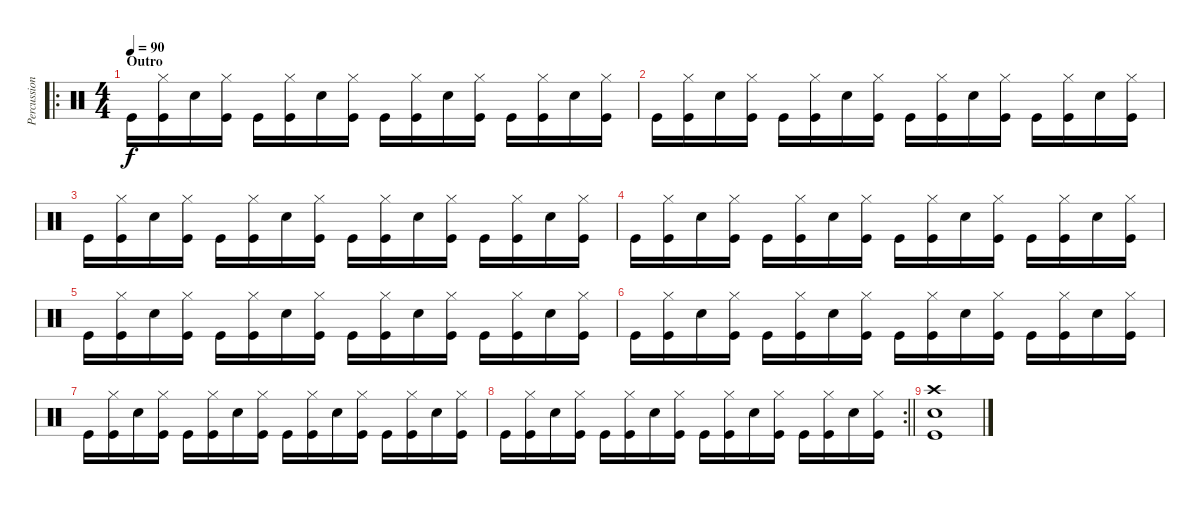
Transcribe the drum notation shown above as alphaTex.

\track ("Percussion" "Percussion") {instrument percussion}
\staff {score}
\articulation defaults
\ro
\ts (4 4)
\section ("" "Outro")
\tempo 90
\clef neutral
\ks c "Kick (hit)".16{dy f}
("Hi-Hat (closed)" "Kick (hit)").16 "Snare (hit) 2".16 ("Hi-Hat (closed)" "Kick (hit)").16 "Kick (hit)".16 ("Hi-Hat (closed)" "Kick (hit)").16 "Snare (hit) 2".16 ("Hi-Hat (closed)" "Kick (hit)").16 "Kick (hit)".16 ("Hi-Hat (closed)" "Kick (hit)").16 "Snare (hit) 2".16 ("Hi-Hat (closed)" "Kick (hit)").16 "Kick (hit)".16 ("Hi-Hat (closed)" "Kick (hit)").16 "Snare (hit) 2".16 ("Hi-Hat (closed)" "Kick (hit)").16 |
"Kick (hit)".16 ("Hi-Hat (closed)" "Kick (hit)").16 "Snare (hit) 2".16 ("Hi-Hat (closed)" "Kick (hit)").16 "Kick (hit)".16 ("Hi-Hat (closed)" "Kick (hit)").16 "Snare (hit) 2".16 ("Hi-Hat (closed)" "Kick (hit)").16 "Kick (hit)".16 ("Hi-Hat (closed)" "Kick (hit)").16 "Snare (hit) 2".16 ("Hi-Hat (closed)" "Kick (hit)").16 "Kick (hit)".16 ("Hi-Hat (closed)" "Kick (hit)").16 "Snare (hit) 2".16 ("Hi-Hat (closed)" "Kick (hit)").16 |
"Kick (hit)".16 ("Hi-Hat (closed)" "Kick (hit)").16 "Snare (hit) 2".16 ("Hi-Hat (closed)" "Kick (hit)").16 "Kick (hit)".16 ("Hi-Hat (closed)" "Kick (hit)").16 "Snare (hit) 2".16 ("Hi-Hat (closed)" "Kick (hit)").16 "Kick (hit)".16 ("Hi-Hat (closed)" "Kick (hit)").16 "Snare (hit) 2".16 ("Hi-Hat (closed)" "Kick (hit)").16 "Kick (hit)".16 ("Hi-Hat (closed)" "Kick (hit)").16 "Snare (hit) 2".16 ("Hi-Hat (closed)" "Kick (hit)").16 |
"Kick (hit)".16 ("Hi-Hat (closed)" "Kick (hit)").16 "Snare (hit) 2".16 ("Hi-Hat (closed)" "Kick (hit)").16 "Kick (hit)".16 ("Hi-Hat (closed)" "Kick (hit)").16 "Snare (hit) 2".16 ("Hi-Hat (closed)" "Kick (hit)").16 "Kick (hit)".16 ("Hi-Hat (closed)" "Kick (hit)").16 "Snare (hit) 2".16 ("Hi-Hat (closed)" "Kick (hit)").16 "Kick (hit)".16 ("Hi-Hat (closed)" "Kick (hit)").16 "Snare (hit) 2".16 ("Hi-Hat (closed)" "Kick (hit)").16 |
"Kick (hit)".16 ("Hi-Hat (closed)" "Kick (hit)").16 "Snare (hit) 2".16 ("Hi-Hat (closed)" "Kick (hit)").16 "Kick (hit)".16 ("Hi-Hat (closed)" "Kick (hit)").16 "Snare (hit) 2".16 ("Hi-Hat (closed)" "Kick (hit)").16 "Kick (hit)".16 ("Hi-Hat (closed)" "Kick (hit)").16 "Snare (hit) 2".16 ("Hi-Hat (closed)" "Kick (hit)").16 "Kick (hit)".16 ("Hi-Hat (closed)" "Kick (hit)").16 "Snare (hit) 2".16 ("Hi-Hat (closed)" "Kick (hit)").16 |
"Kick (hit)".16 ("Hi-Hat (closed)" "Kick (hit)").16 "Snare (hit) 2".16 ("Hi-Hat (closed)" "Kick (hit)").16 "Kick (hit)".16 ("Hi-Hat (closed)" "Kick (hit)").16 "Snare (hit) 2".16 ("Hi-Hat (closed)" "Kick (hit)").16 "Kick (hit)".16 ("Hi-Hat (closed)" "Kick (hit)").16 "Snare (hit) 2".16 ("Hi-Hat (closed)" "Kick (hit)").16 "Kick (hit)".16 ("Hi-Hat (closed)" "Kick (hit)").16 "Snare (hit) 2".16 ("Hi-Hat (closed)" "Kick (hit)").16 |
"Kick (hit)".16 ("Hi-Hat (closed)" "Kick (hit)").16 "Snare (hit) 2".16 ("Hi-Hat (closed)" "Kick (hit)").16 "Kick (hit)".16 ("Hi-Hat (closed)" "Kick (hit)").16 "Snare (hit) 2".16 ("Hi-Hat (closed)" "Kick (hit)").16 "Kick (hit)".16 ("Hi-Hat (closed)" "Kick (hit)").16 "Snare (hit) 2".16 ("Hi-Hat (closed)" "Kick (hit)").16 "Kick (hit)".16 ("Hi-Hat (closed)" "Kick (hit)").16 "Snare (hit) 2".16 ("Hi-Hat (closed)" "Kick (hit)").16 |
\rc 2
\barLineRight lightlight "Kick (hit)".16
("Hi-Hat (closed)" "Kick (hit)").16 "Snare (hit) 2".16 ("Hi-Hat (closed)" "Kick (hit)").16 "Kick (hit)".16 ("Hi-Hat (closed)" "Kick (hit)").16 "Snare (hit) 2".16 ("Hi-Hat (closed)" "Kick (hit)").16 "Kick (hit)".16 ("Hi-Hat (closed)" "Kick (hit)").16 "Snare (hit) 2".16 ("Hi-Hat (closed)" "Kick (hit)").16 "Kick (hit)".16 ("Hi-Hat (closed)" "Kick (hit)").16 "Snare (hit) 2".16 ("Hi-Hat (closed)" "Kick (hit)").16 |
("Crash high (hit)" "Snare (hit) 2" "Kick (hit)").1
